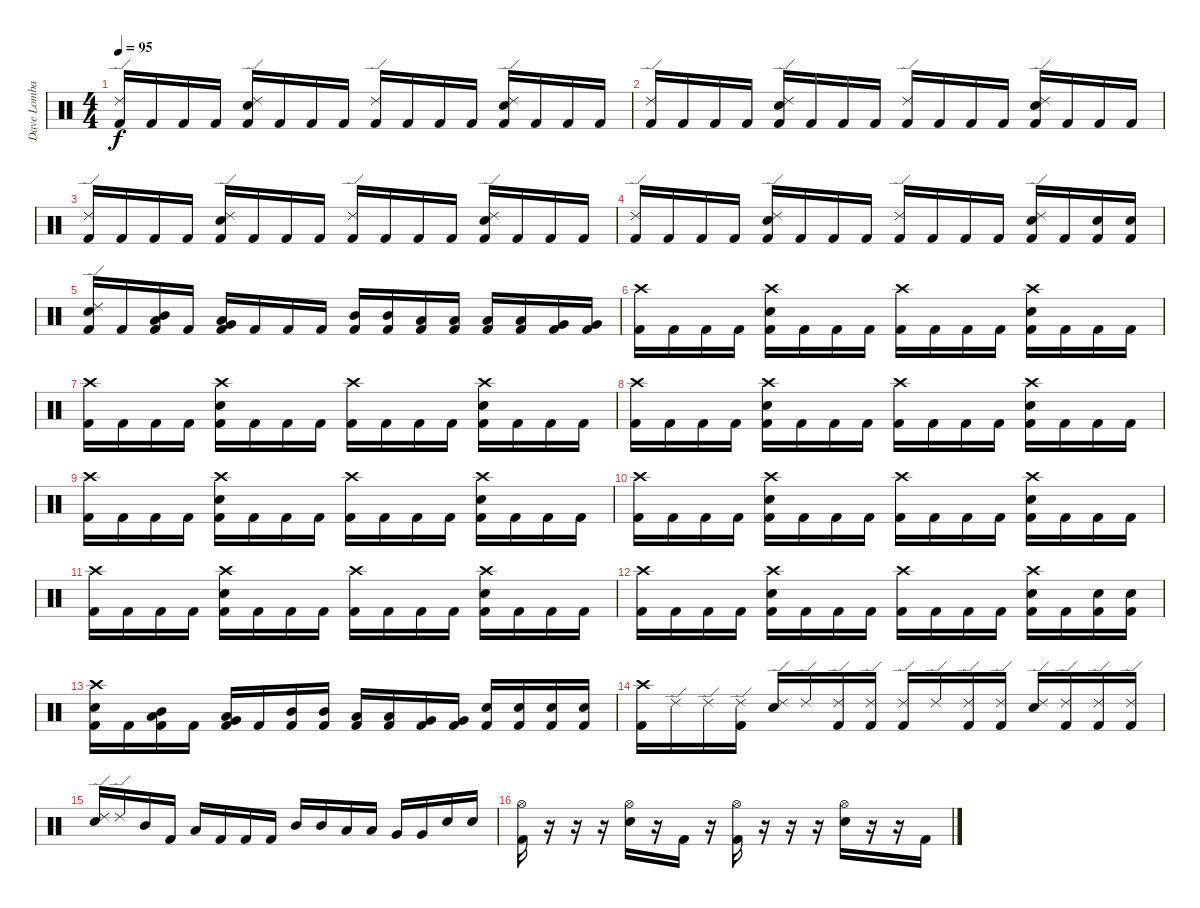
\track ("Dave Lombardo" "Dave Lomba") {instrument percussion}
\staff {score}
\articulation defaults
\ts (4 4)
\tempo 95
\clef neutral
\ks c
("Ride (edge) 2" "Kick (hit) 2").16{dy f} "Kick (hit) 2".16 "Kick (hit) 2".16 "Kick (hit) 2".16 ("Ride (edge) 2" "Snare (hit) 2" "Kick (hit) 2").16 "Kick (hit) 2".16 "Kick (hit) 2".16 "Kick (hit) 2".16 ("Ride (edge) 2" "Kick (hit) 2").16 "Kick (hit) 2".16 "Kick (hit) 2".16 "Kick (hit) 2".16 ("Ride (edge) 2" "Snare (hit) 2" "Kick (hit) 2").16 "Kick (hit) 2".16 "Kick (hit) 2".16 "Kick (hit) 2".16 |
("Ride (edge) 2" "Kick (hit) 2").16 "Kick (hit) 2".16 "Kick (hit) 2".16 "Kick (hit) 2".16 ("Ride (edge) 2" "Snare (hit) 2" "Kick (hit) 2").16 "Kick (hit) 2".16 "Kick (hit) 2".16 "Kick (hit) 2".16 ("Ride (edge) 2" "Kick (hit) 2").16 "Kick (hit) 2".16 "Kick (hit) 2".16 "Kick (hit) 2".16 ("Ride (edge) 2" "Snare (hit) 2" "Kick (hit) 2").16 "Kick (hit) 2".16 "Kick (hit) 2".16 "Kick (hit) 2".16 |
("Ride (edge) 2" "Kick (hit) 2").16 "Kick (hit) 2".16 "Kick (hit) 2".16 "Kick (hit) 2".16 ("Ride (edge) 2" "Snare (hit) 2" "Kick (hit) 2").16 "Kick (hit) 2".16 "Kick (hit) 2".16 "Kick (hit) 2".16 ("Ride (edge) 2" "Kick (hit) 2").16 "Kick (hit) 2".16 "Kick (hit) 2".16 "Kick (hit) 2".16 ("Ride (edge) 2" "Snare (hit) 2" "Kick (hit) 2").16 "Kick (hit) 2".16 "Kick (hit) 2".16 "Kick (hit) 2".16 |
("Ride (edge) 2" "Kick (hit) 2").16 "Kick (hit) 2".16 "Kick (hit) 2".16 "Kick (hit) 2".16 ("Ride (edge) 2" "Snare (hit) 2" "Kick (hit) 2").16 "Kick (hit) 2".16 "Kick (hit) 2".16 "Kick (hit) 2".16 ("Ride (edge) 2" "Kick (hit) 2").16 "Kick (hit) 2".16 "Kick (hit) 2".16 "Kick (hit) 2".16 ("Ride (edge) 2" "Snare (hit) 2" "Kick (hit) 2").16 "Kick (hit) 2".16 ("Snare (hit) 2" "Kick (hit) 2").16 ("Snare (hit) 2" "Kick (hit) 2").16 |
("Ride (edge) 2" "Snare (hit) 2" "Kick (hit) 2").16 "Kick (hit) 2".16 ("Mid Tom (hit)" "Low Tom (hit)" "Kick (hit) 2").16 "Kick (hit) 2".16 ("Low Tom (hit)" "Very Low Tom (hit)" "Kick (hit) 2").16 "Kick (hit) 2".16 "Kick (hit) 2".16 "Kick (hit) 2".16 ("Mid Tom (hit)" "Kick (hit) 2").16 ("Mid Tom (hit)" "Kick (hit) 2").16 ("Low Floor Tom (hit)" "Kick (hit) 2").16 ("Low Tom (hit)" "Kick (hit) 2").16 ("Low Tom (hit)" "Kick (hit) 2").16 ("Low Floor Tom (hit)" "Kick (hit) 2").16 ("Very Low Tom (hit)" "Kick (hit) 2").16 ("Very Low Tom (hit)" "Kick (hit) 2").16 |
("Crash high (hit)" "Kick (hit) 2").16 "Kick (hit) 2".16 "Kick (hit) 2".16 "Kick (hit) 2".16 ("Crash high (hit)" "Snare (hit) 2" "Kick (hit) 2").16 "Kick (hit) 2".16 "Kick (hit) 2".16 "Kick (hit) 2".16 ("Crash high (hit)" "Kick (hit) 2").16 "Kick (hit) 2".16 "Kick (hit) 2".16 "Kick (hit) 2".16 ("Crash high (hit)" "Snare (hit) 2" "Kick (hit) 2").16 "Kick (hit) 2".16 "Kick (hit) 2".16 "Kick (hit) 2".16 |
("Crash high (hit)" "Kick (hit) 2").16 "Kick (hit) 2".16 "Kick (hit) 2".16 "Kick (hit) 2".16 ("Crash high (hit)" "Snare (hit) 2" "Kick (hit) 2").16 "Kick (hit) 2".16 "Kick (hit) 2".16 "Kick (hit) 2".16 ("Crash high (hit)" "Kick (hit) 2").16 "Kick (hit) 2".16 "Kick (hit) 2".16 "Kick (hit) 2".16 ("Crash high (hit)" "Snare (hit) 2" "Kick (hit) 2").16 "Kick (hit) 2".16 "Kick (hit) 2".16 "Kick (hit) 2".16 |
("Crash high (hit)" "Kick (hit) 2").16 "Kick (hit) 2".16 "Kick (hit) 2".16 "Kick (hit) 2".16 ("Crash high (hit)" "Snare (hit) 2" "Kick (hit) 2").16 "Kick (hit) 2".16 "Kick (hit) 2".16 "Kick (hit) 2".16 ("Crash high (hit)" "Kick (hit) 2").16 "Kick (hit) 2".16 "Kick (hit) 2".16 "Kick (hit) 2".16 ("Crash high (hit)" "Snare (hit) 2" "Kick (hit) 2").16 "Kick (hit) 2".16 "Kick (hit) 2".16 "Kick (hit) 2".16 |
("Crash high (hit)" "Kick (hit) 2").16 "Kick (hit) 2".16 "Kick (hit) 2".16 "Kick (hit) 2".16 ("Crash high (hit)" "Snare (hit) 2" "Kick (hit) 2").16 "Kick (hit) 2".16 "Kick (hit) 2".16 "Kick (hit) 2".16 ("Crash high (hit)" "Kick (hit) 2").16 "Kick (hit) 2".16 "Kick (hit) 2".16 "Kick (hit) 2".16 ("Crash high (hit)" "Snare (hit) 2" "Kick (hit) 2").16 "Kick (hit) 2".16 "Kick (hit) 2".16 "Kick (hit) 2".16 |
("Crash high (hit)" "Kick (hit) 2").16 "Kick (hit) 2".16 "Kick (hit) 2".16 "Kick (hit) 2".16 ("Crash high (hit)" "Snare (hit) 2" "Kick (hit) 2").16 "Kick (hit) 2".16 "Kick (hit) 2".16 "Kick (hit) 2".16 ("Crash high (hit)" "Kick (hit) 2").16 "Kick (hit) 2".16 "Kick (hit) 2".16 "Kick (hit) 2".16 ("Crash high (hit)" "Snare (hit) 2" "Kick (hit) 2").16 "Kick (hit) 2".16 "Kick (hit) 2".16 "Kick (hit) 2".16 |
("Crash high (hit)" "Kick (hit) 2").16 "Kick (hit) 2".16 "Kick (hit) 2".16 "Kick (hit) 2".16 ("Crash high (hit)" "Snare (hit) 2" "Kick (hit) 2").16 "Kick (hit) 2".16 "Kick (hit) 2".16 "Kick (hit) 2".16 ("Crash high (hit)" "Kick (hit) 2").16 "Kick (hit) 2".16 "Kick (hit) 2".16 "Kick (hit) 2".16 ("Crash high (hit)" "Snare (hit) 2" "Kick (hit) 2").16 "Kick (hit) 2".16 "Kick (hit) 2".16 "Kick (hit) 2".16 |
("Crash high (hit)" "Kick (hit) 2").16 "Kick (hit) 2".16 "Kick (hit) 2".16 "Kick (hit) 2".16 ("Crash high (hit)" "Snare (hit) 2" "Kick (hit) 2").16 "Kick (hit) 2".16 "Kick (hit) 2".16 "Kick (hit) 2".16 ("Crash high (hit)" "Kick (hit) 2").16 "Kick (hit) 2".16 "Kick (hit) 2".16 "Kick (hit) 2".16 ("Crash high (hit)" "Snare (hit) 2" "Kick (hit) 2").16 "Kick (hit) 2".16 ("Snare (hit) 2" "Kick (hit) 2").16 ("Snare (hit) 2" "Kick (hit) 2").16 |
("Crash high (hit)" "Snare (hit) 2" "Kick (hit) 2").16 "Kick (hit) 2".16 ("Mid Tom (hit)" "Low Tom (hit)" "Kick (hit) 2").16 "Kick (hit) 2".16 ("Low Tom (hit)" "Very Low Tom (hit)" "Kick (hit) 2").16 "Kick (hit) 2".16 ("Mid Tom (hit)" "Kick (hit) 2").16 ("Mid Tom (hit)" "Kick (hit) 2").16 ("Low Tom (hit)" "Kick (hit) 2").16 ("Low Tom (hit)" "Kick (hit) 2").16 ("Very Low Tom (hit)" "Kick (hit) 2").16 ("Very Low Tom (hit)" "Kick (hit) 2").16 ("Snare (hit) 2" "Kick (hit) 2").16 ("Snare (hit) 2" "Kick (hit) 2").16 ("Snare (hit) 2" "Kick (hit) 2").16 ("Snare (hit) 2" "Kick (hit) 2").16 |
("Crash high (hit)" "Kick (hit) 2").16 "Ride (edge) 2".16 "Ride (edge) 2".16 ("Ride (edge) 2" "Kick (hit) 2").16 ("Ride (edge) 2" "Snare (hit) 2").16 "Ride (edge) 2".16 ("Ride (edge) 2" "Kick (hit) 2").16 ("Ride (edge) 2" "Kick (hit) 2").16 ("Ride (edge) 2" "Kick (hit) 2").16 "Ride (edge) 2".16 ("Ride (edge) 2" "Kick (hit) 2").16 ("Ride (edge) 2" "Kick (hit) 2").16 ("Ride (edge) 2" "Snare (hit) 2").16 ("Ride (edge) 2" "Kick (hit) 2").16 ("Ride (edge) 2" "Kick (hit) 2").16 ("Ride (edge) 2" "Kick (hit) 2").16 |
("Ride (edge) 2" "Snare (hit) 2").16 "Ride (edge) 2".16 "Mid Tom (hit)".16 "Kick (hit) 2".16 "Low Tom (hit)".16 "Kick (hit) 2".16 "Kick (hit) 2".16 "Kick (hit) 2".16 "Mid Tom (hit)".16 "Mid Tom (hit)".16 "Low Tom (hit)".16 "Low Tom (hit)".16 "Very Low Tom (hit)".16 "Very Low Tom (hit)".16 "Snare (hit) 2".16 "Snare (hit) 2".16 |
("Hi-Hat (open)" "Kick (hit) 2").16 r.16 r.16 r.16 ("Hi-Hat (open)" "Snare (hit) 2").16 r.16 "Kick (hit) 2".16 r.16 ("Hi-Hat (open)" "Kick (hit) 2").16 r.16 r.16 r.16 ("Hi-Hat (open)" "Snare (hit) 2").16 r.16 r.16 "Kick (hit) 2".16
